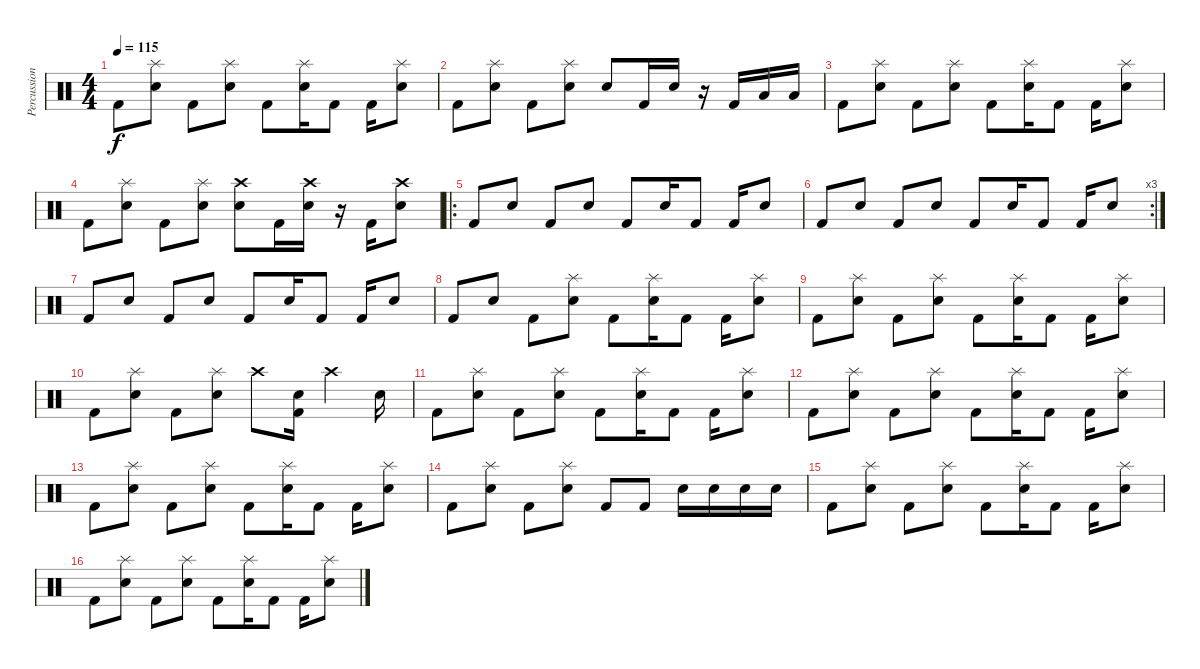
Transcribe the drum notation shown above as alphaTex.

\track ("Percussion" "Percussion") {instrument percussion}
\staff {score}
\articulation defaults
\ts (4 4)
\tempo 115
\clef neutral
\ks c "Kick (hit) 2".8{dy f}
("Splash (hit)" "Snare (hit) 2").8 "Kick (hit) 2".8 ("Splash (hit)" "Snare (hit) 2").8 "Kick (hit) 2".8 ("Splash (hit)" "Snare (hit) 2").16 "Kick (hit) 2".8 "Kick (hit) 2".16 ("Splash (hit)" "Snare (hit) 2").8 |
"Kick (hit) 2".8 ("Splash (hit)" "Snare (hit) 2").8 "Kick (hit) 2".8 ("Splash (hit)" "Snare (hit) 2").8 "Snare (hit) 2".8 "Kick (hit) 2".16 "Snare (hit) 2".16 r.16 "Kick (hit) 2".16 "Low Tom (hit)".16 "Low Floor Tom (hit)".16 |
"Kick (hit) 2".8 ("Splash (hit)" "Snare (hit) 2").8 "Kick (hit) 2".8 ("Splash (hit)" "Snare (hit) 2").8 "Kick (hit) 2".8 ("Splash (hit)" "Snare (hit) 2").16 "Kick (hit) 2".8 "Kick (hit) 2".16 ("Splash (hit)" "Snare (hit) 2").8 |
"Kick (hit) 2".8 ("Splash (hit)" "Snare (hit) 2").8 "Kick (hit) 2".8 ("Splash (hit)" "Snare (hit) 2").8 ("Crash high (hit)" "Snare (hit) 2").8 "Kick (hit) 2".16 ("Crash high (hit)" "Snare (hit) 2").16 r.16 "Kick (hit) 2".16 ("Crash high (hit)" "Snare (hit) 2").8 |
\ro "Kick (hit) 2".8 "Snare (hit) 2".8 "Kick (hit) 2".8 "Snare (hit) 2".8 "Kick (hit) 2".8 "Snare (hit) 2".16 "Kick (hit) 2".8 "Kick (hit) 2".16 "Snare (hit) 2".8
|
\rc 3 "Kick (hit) 2".8 "Snare (hit) 2".8 "Kick (hit) 2".8 "Snare (hit) 2".8 "Kick (hit) 2".8 "Snare (hit) 2".16 "Kick (hit) 2".8 "Kick (hit) 2".16 "Snare (hit) 2".8
|
"Kick (hit) 2".8 "Snare (hit) 2".8 "Kick (hit) 2".8 "Snare (hit) 2".8 "Kick (hit) 2".8 "Snare (hit) 2".16 "Kick (hit) 2".8 "Kick (hit) 2".16 "Snare (hit) 2".8 |
"Kick (hit) 2".8 "Snare (hit) 2".8 "Kick (hit) 2".8 ("Splash (hit)" "Snare (hit) 2").8 "Kick (hit) 2".8 ("Splash (hit)" "Snare (hit) 2").16 "Kick (hit) 2".8 "Kick (hit) 2".16 ("Splash (hit)" "Snare (hit) 2").8 |
"Kick (hit) 2".8 ("Splash (hit)" "Snare (hit) 2").8 "Kick (hit) 2".8 ("Splash (hit)" "Snare (hit) 2").8 "Kick (hit) 2".8 ("Splash (hit)" "Snare (hit) 2").16 "Kick (hit) 2".8 "Kick (hit) 2".16 ("Splash (hit)" "Snare (hit) 2").8 |
"Kick (hit) 2".8 ("Splash (hit)" "Snare (hit) 2").8 "Kick (hit) 2".8 ("Splash (hit)" "Snare (hit) 2").8 "Crash high (hit)".8 ("Snare (hit) 2" "Kick (hit) 2").16 "Crash high (hit)".4 "Snare (hit) 2".16 |
"Kick (hit) 2".8 ("Splash (hit)" "Snare (hit) 2").8 "Kick (hit) 2".8 ("Splash (hit)" "Snare (hit) 2").8 "Kick (hit) 2".8 ("Splash (hit)" "Snare (hit) 2").16 "Kick (hit) 2".8 "Kick (hit) 2".16 ("Splash (hit)" "Snare (hit) 2").8 |
"Kick (hit) 2".8 ("Splash (hit)" "Snare (hit) 2").8 "Kick (hit) 2".8 ("Splash (hit)" "Snare (hit) 2").8 "Kick (hit) 2".8 ("Splash (hit)" "Snare (hit) 2").16 "Kick (hit) 2".8 "Kick (hit) 2".16 ("Splash (hit)" "Snare (hit) 2").8 |
"Kick (hit) 2".8 ("Splash (hit)" "Snare (hit) 2").8 "Kick (hit) 2".8 ("Splash (hit)" "Snare (hit) 2").8 "Kick (hit) 2".8 ("Splash (hit)" "Snare (hit) 2").16 "Kick (hit) 2".8 "Kick (hit) 2".16 ("Splash (hit)" "Snare (hit) 2").8 |
"Kick (hit) 2".8 ("Splash (hit)" "Snare (hit) 2").8 "Kick (hit) 2".8 ("Splash (hit)" "Snare (hit) 2").8 "Kick (hit) 2".8 "Kick (hit) 2".8 "Snare (hit) 2".16 "Snare (hit) 2".16 "Snare (hit) 2".16 "Snare (hit) 2".16 |
"Kick (hit) 2".8 ("Splash (hit)" "Snare (hit) 2").8 "Kick (hit) 2".8 ("Splash (hit)" "Snare (hit) 2").8 "Kick (hit) 2".8 ("Splash (hit)" "Snare (hit) 2").16 "Kick (hit) 2".8 "Kick (hit) 2".16 ("Splash (hit)" "Snare (hit) 2").8 |
"Kick (hit) 2".8 ("Splash (hit)" "Snare (hit) 2").8 "Kick (hit) 2".8 ("Splash (hit)" "Snare (hit) 2").8 "Kick (hit) 2".8 ("Splash (hit)" "Snare (hit) 2").16 "Kick (hit) 2".8 "Kick (hit) 2".16 ("Splash (hit)" "Snare (hit) 2").8
